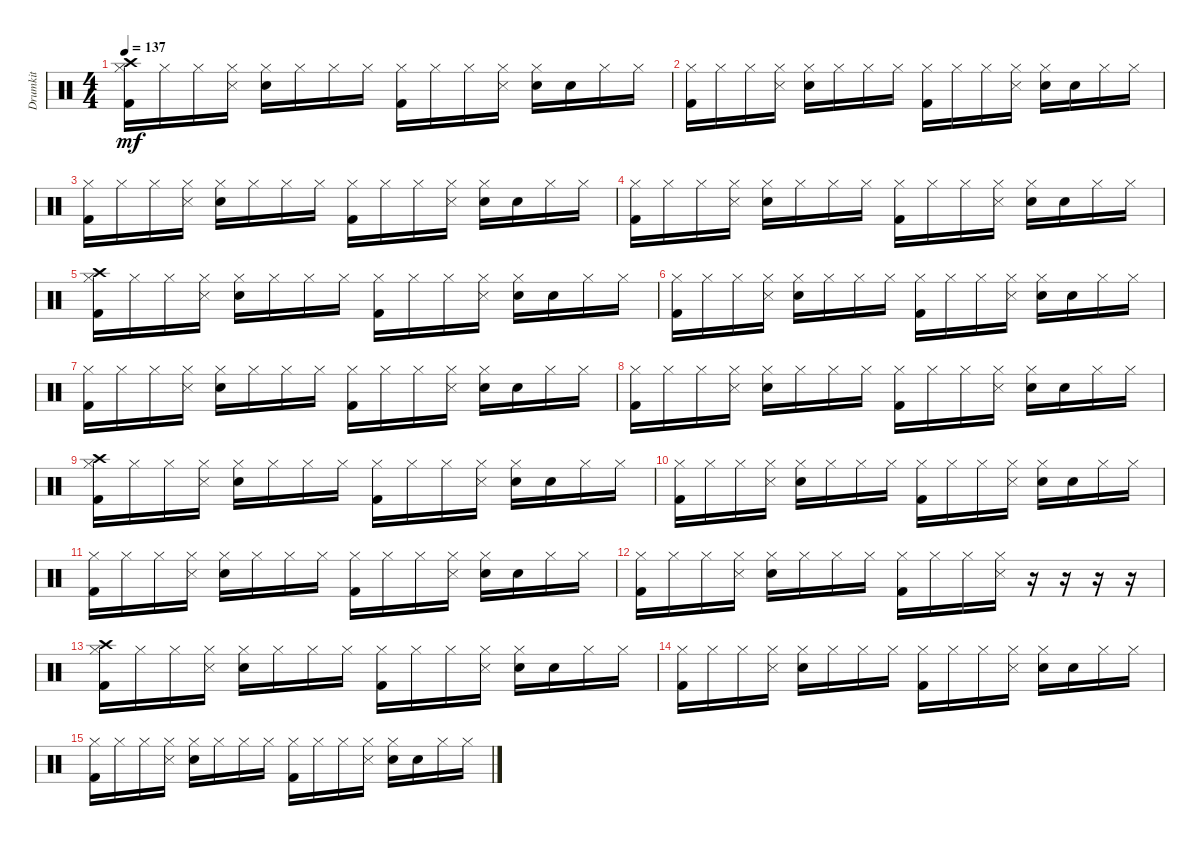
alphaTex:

\track ("Drumkit" "Drumkit") {instrument percussion}
\staff {score}
\articulation defaults
\ts (4 4)
\tempo 137
\clef neutral
\ks c
("Hi-Hat (closed)" "Crash high (hit)" "Kick (hit) 2").16{dy mf} "Hi-Hat (closed)".16 "Hi-Hat (closed)".16 ("Hi-Hat (closed)" "Snare (side stick) 3").16 ("Hi-Hat (closed)" "Electric Snare (hit)").16 "Hi-Hat (closed)".16 "Hi-Hat (closed)".16 "Hi-Hat (closed)".16 ("Hi-Hat (closed)" "Kick (hit) 2").16 "Hi-Hat (closed)".16 "Hi-Hat (closed)".16 ("Hi-Hat (closed)" "Snare (side stick) 3").16 ("Hi-Hat (closed)" "Electric Snare (hit)").16 "Snare (hit)".16 "Hi-Hat (closed)".16 "Hi-Hat (closed)".16 |
("Hi-Hat (closed)" "Kick (hit) 2").16 "Hi-Hat (closed)".16 "Hi-Hat (closed)".16 ("Hi-Hat (closed)" "Snare (side stick) 3").16 ("Hi-Hat (closed)" "Electric Snare (hit)").16 "Hi-Hat (closed)".16 "Hi-Hat (closed)".16 "Hi-Hat (closed)".16 ("Hi-Hat (closed)" "Kick (hit) 2").16 "Hi-Hat (closed)".16 "Hi-Hat (closed)".16 ("Hi-Hat (closed)" "Snare (side stick) 3").16 ("Hi-Hat (closed)" "Electric Snare (hit)").16 "Snare (hit)".16 "Hi-Hat (closed)".16 "Hi-Hat (closed)".16 |
("Hi-Hat (closed)" "Kick (hit) 2").16 "Hi-Hat (closed)".16 "Hi-Hat (closed)".16 ("Hi-Hat (closed)" "Snare (side stick) 3").16 ("Hi-Hat (closed)" "Electric Snare (hit)").16 "Hi-Hat (closed)".16 "Hi-Hat (closed)".16 "Hi-Hat (closed)".16 ("Hi-Hat (closed)" "Kick (hit) 2").16 "Hi-Hat (closed)".16 "Hi-Hat (closed)".16 ("Hi-Hat (closed)" "Snare (side stick) 3").16 ("Hi-Hat (closed)" "Electric Snare (hit)").16 "Snare (hit)".16 "Hi-Hat (closed)".16 "Hi-Hat (closed)".16 |
("Hi-Hat (closed)" "Kick (hit) 2").16 "Hi-Hat (closed)".16 "Hi-Hat (closed)".16 ("Hi-Hat (closed)" "Snare (side stick) 3").16 ("Hi-Hat (closed)" "Electric Snare (hit)").16 "Hi-Hat (closed)".16 "Hi-Hat (closed)".16 "Hi-Hat (closed)".16 ("Hi-Hat (closed)" "Kick (hit) 2").16 "Hi-Hat (closed)".16 "Hi-Hat (closed)".16 ("Hi-Hat (closed)" "Snare (side stick) 3").16 ("Hi-Hat (closed)" "Electric Snare (hit)").16 "Snare (hit)".16 "Hi-Hat (closed)".16 "Hi-Hat (closed)".16 |
("Hi-Hat (closed)" "Kick (hit) 2" "Crash high (hit)").16 "Hi-Hat (closed)".16 "Hi-Hat (closed)".16 ("Hi-Hat (closed)" "Snare (side stick) 3").16 ("Hi-Hat (closed)" "Electric Snare (hit)").16 "Hi-Hat (closed)".16 "Hi-Hat (closed)".16 "Hi-Hat (closed)".16 ("Hi-Hat (closed)" "Kick (hit) 2").16 "Hi-Hat (closed)".16 "Hi-Hat (closed)".16 ("Hi-Hat (closed)" "Snare (side stick) 3").16 ("Hi-Hat (closed)" "Electric Snare (hit)").16 "Snare (hit)".16 "Hi-Hat (closed)".16 "Hi-Hat (closed)".16 |
("Hi-Hat (closed)" "Kick (hit) 2").16 "Hi-Hat (closed)".16 "Hi-Hat (closed)".16 ("Hi-Hat (closed)" "Snare (side stick) 3").16 ("Hi-Hat (closed)" "Electric Snare (hit)").16 "Hi-Hat (closed)".16 "Hi-Hat (closed)".16 "Hi-Hat (closed)".16 ("Hi-Hat (closed)" "Kick (hit) 2").16 "Hi-Hat (closed)".16 "Hi-Hat (closed)".16 ("Hi-Hat (closed)" "Snare (side stick) 3").16 ("Hi-Hat (closed)" "Electric Snare (hit)").16 "Snare (hit)".16 "Hi-Hat (closed)".16 "Hi-Hat (closed)".16 |
("Hi-Hat (closed)" "Kick (hit) 2").16 "Hi-Hat (closed)".16 "Hi-Hat (closed)".16 ("Hi-Hat (closed)" "Snare (side stick) 3").16 ("Hi-Hat (closed)" "Electric Snare (hit)").16 "Hi-Hat (closed)".16 "Hi-Hat (closed)".16 "Hi-Hat (closed)".16 ("Hi-Hat (closed)" "Kick (hit) 2").16 "Hi-Hat (closed)".16 "Hi-Hat (closed)".16 ("Hi-Hat (closed)" "Snare (side stick) 3").16 ("Hi-Hat (closed)" "Electric Snare (hit)").16 "Snare (hit)".16 "Hi-Hat (closed)".16 "Hi-Hat (closed)".16 |
("Hi-Hat (closed)" "Kick (hit) 2").16 "Hi-Hat (closed)".16 "Hi-Hat (closed)".16 ("Hi-Hat (closed)" "Snare (side stick) 3").16 ("Hi-Hat (closed)" "Electric Snare (hit)").16 "Hi-Hat (closed)".16 "Hi-Hat (closed)".16 "Hi-Hat (closed)".16 ("Hi-Hat (closed)" "Kick (hit) 2").16 "Hi-Hat (closed)".16 "Hi-Hat (closed)".16 ("Hi-Hat (closed)" "Snare (side stick) 3").16 ("Hi-Hat (closed)" "Electric Snare (hit)").16 "Snare (hit)".16 "Hi-Hat (closed)".16 "Hi-Hat (closed)".16 |
("Hi-Hat (closed)" "Kick (hit) 2" "Crash high (hit)").16 "Hi-Hat (closed)".16 "Hi-Hat (closed)".16 ("Hi-Hat (closed)" "Snare (side stick) 3").16 ("Hi-Hat (closed)" "Electric Snare (hit)").16 "Hi-Hat (closed)".16 "Hi-Hat (closed)".16 "Hi-Hat (closed)".16 ("Hi-Hat (closed)" "Kick (hit) 2").16 "Hi-Hat (closed)".16 "Hi-Hat (closed)".16 ("Hi-Hat (closed)" "Snare (side stick) 3").16 ("Hi-Hat (closed)" "Electric Snare (hit)").16 "Snare (hit)".16 "Hi-Hat (closed)".16 "Hi-Hat (closed)".16 |
("Hi-Hat (closed)" "Kick (hit) 2").16 "Hi-Hat (closed)".16 "Hi-Hat (closed)".16 ("Hi-Hat (closed)" "Snare (side stick) 3").16 ("Hi-Hat (closed)" "Electric Snare (hit)").16 "Hi-Hat (closed)".16 "Hi-Hat (closed)".16 "Hi-Hat (closed)".16 ("Hi-Hat (closed)" "Kick (hit) 2").16 "Hi-Hat (closed)".16 "Hi-Hat (closed)".16 ("Hi-Hat (closed)" "Snare (side stick) 3").16 ("Hi-Hat (closed)" "Electric Snare (hit)").16 "Snare (hit)".16 "Hi-Hat (closed)".16 "Hi-Hat (closed)".16 |
("Hi-Hat (closed)" "Kick (hit) 2").16 "Hi-Hat (closed)".16 "Hi-Hat (closed)".16 ("Hi-Hat (closed)" "Snare (side stick) 3").16 ("Hi-Hat (closed)" "Electric Snare (hit)").16 "Hi-Hat (closed)".16 "Hi-Hat (closed)".16 "Hi-Hat (closed)".16 ("Hi-Hat (closed)" "Kick (hit) 2").16 "Hi-Hat (closed)".16 "Hi-Hat (closed)".16 ("Hi-Hat (closed)" "Snare (side stick) 3").16 ("Hi-Hat (closed)" "Electric Snare (hit)").16 "Snare (hit)".16 "Hi-Hat (closed)".16 "Hi-Hat (closed)".16 |
("Hi-Hat (closed)" "Kick (hit) 2").16 "Hi-Hat (closed)".16 "Hi-Hat (closed)".16 ("Hi-Hat (closed)" "Snare (side stick) 3").16 ("Hi-Hat (closed)" "Electric Snare (hit)").16 "Hi-Hat (closed)".16 "Hi-Hat (closed)".16 "Hi-Hat (closed)".16 ("Hi-Hat (closed)" "Kick (hit) 2").16 "Hi-Hat (closed)".16 "Hi-Hat (closed)".16 ("Hi-Hat (closed)" "Snare (side stick) 3").16 r.16 r.16 r.16 r.16 |
("Hi-Hat (closed)" "Kick (hit) 2" "Crash high (hit)").16 "Hi-Hat (closed)".16 "Hi-Hat (closed)".16 ("Hi-Hat (closed)" "Snare (side stick) 3").16 ("Hi-Hat (closed)" "Electric Snare (hit)").16 "Hi-Hat (closed)".16 "Hi-Hat (closed)".16 "Hi-Hat (closed)".16 ("Hi-Hat (closed)" "Kick (hit) 2").16 "Hi-Hat (closed)".16 "Hi-Hat (closed)".16 ("Hi-Hat (closed)" "Snare (side stick) 3").16 ("Hi-Hat (closed)" "Electric Snare (hit)").16 "Snare (hit)".16 "Hi-Hat (closed)".16 "Hi-Hat (closed)".16 |
("Hi-Hat (closed)" "Kick (hit) 2").16 "Hi-Hat (closed)".16 "Hi-Hat (closed)".16 ("Hi-Hat (closed)" "Snare (side stick) 3").16 ("Hi-Hat (closed)" "Electric Snare (hit)").16 "Hi-Hat (closed)".16 "Hi-Hat (closed)".16 "Hi-Hat (closed)".16 ("Hi-Hat (closed)" "Kick (hit) 2").16 "Hi-Hat (closed)".16 "Hi-Hat (closed)".16 ("Hi-Hat (closed)" "Snare (side stick) 3").16 ("Hi-Hat (closed)" "Electric Snare (hit)").16 "Snare (hit)".16 "Hi-Hat (closed)".16 "Hi-Hat (closed)".16 |
("Hi-Hat (closed)" "Kick (hit) 2").16 "Hi-Hat (closed)".16 "Hi-Hat (closed)".16 ("Hi-Hat (closed)" "Snare (side stick) 3").16 ("Hi-Hat (closed)" "Electric Snare (hit)").16 "Hi-Hat (closed)".16 "Hi-Hat (closed)".16 "Hi-Hat (closed)".16 ("Hi-Hat (closed)" "Kick (hit) 2").16 "Hi-Hat (closed)".16 "Hi-Hat (closed)".16 ("Hi-Hat (closed)" "Snare (side stick) 3").16 ("Hi-Hat (closed)" "Electric Snare (hit)").16 "Snare (hit)".16 "Hi-Hat (closed)".16 "Hi-Hat (closed)".16
